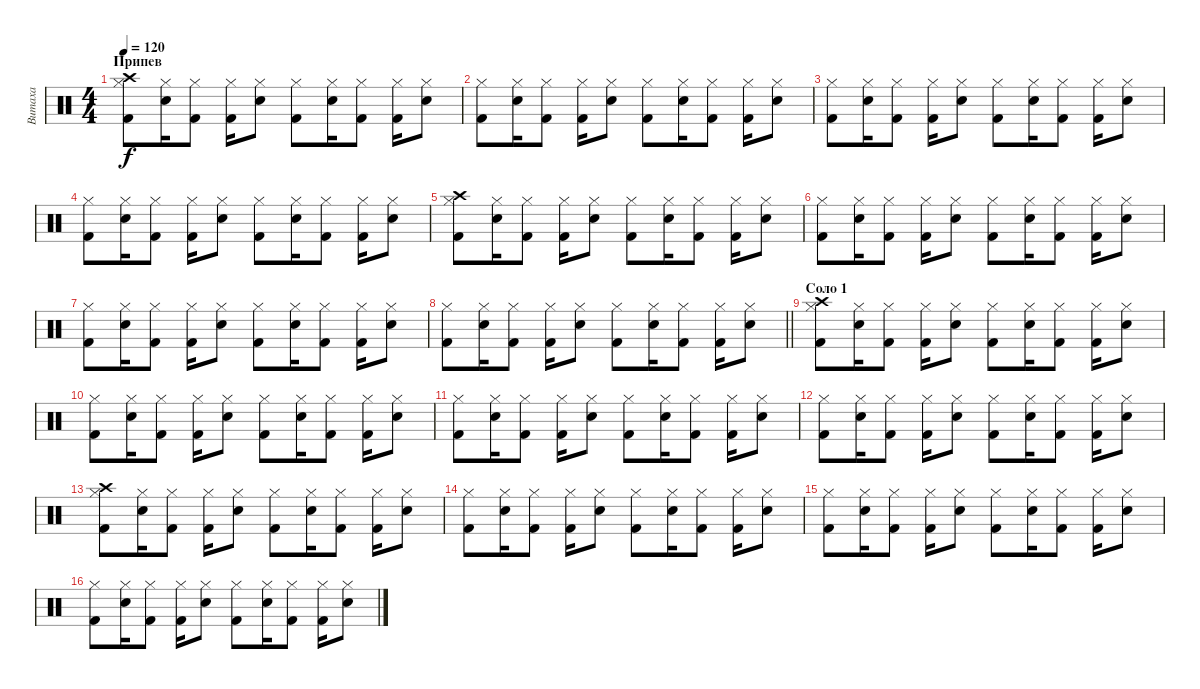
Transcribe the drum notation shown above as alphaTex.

\track ("Витаха" "Витаха") {instrument percussion}
\staff {score}
\articulation defaults
\ts (4 4)
\section ("" "Припев")
\tempo 120
\clef neutral
\ks c
("Kick (hit) 2" "Crash high (hit)" "Hi-Hat (closed)").8{dy f} ("Electric Snare (hit)" "Hi-Hat (closed)").16 ("Kick (hit) 2" "Hi-Hat (closed)").8 ("Kick (hit) 2" "Hi-Hat (closed)").16 ("Electric Snare (hit)" "Hi-Hat (closed)").8 ("Kick (hit) 2" "Hi-Hat (closed)").8 ("Electric Snare (hit)" "Hi-Hat (closed)").16 ("Kick (hit) 2" "Hi-Hat (closed)").8 ("Kick (hit) 2" "Hi-Hat (closed)").16 ("Electric Snare (hit)" "Hi-Hat (closed)").8 |
("Kick (hit) 2" "Hi-Hat (closed)").8 ("Electric Snare (hit)" "Hi-Hat (closed)").16 ("Kick (hit) 2" "Hi-Hat (closed)").8 ("Kick (hit) 2" "Hi-Hat (closed)").16 ("Electric Snare (hit)" "Hi-Hat (closed)").8 ("Kick (hit) 2" "Hi-Hat (closed)").8 ("Electric Snare (hit)" "Hi-Hat (closed)").16 ("Kick (hit) 2" "Hi-Hat (closed)").8 ("Kick (hit) 2" "Hi-Hat (closed)").16 ("Electric Snare (hit)" "Hi-Hat (closed)").8 |
("Kick (hit) 2" "Hi-Hat (closed)").8 ("Electric Snare (hit)" "Hi-Hat (closed)").16 ("Kick (hit) 2" "Hi-Hat (closed)").8 ("Kick (hit) 2" "Hi-Hat (closed)").16 ("Electric Snare (hit)" "Hi-Hat (closed)").8 ("Kick (hit) 2" "Hi-Hat (closed)").8 ("Electric Snare (hit)" "Hi-Hat (closed)").16 ("Kick (hit) 2" "Hi-Hat (closed)").8 ("Kick (hit) 2" "Hi-Hat (closed)").16 ("Electric Snare (hit)" "Hi-Hat (closed)").8 |
("Kick (hit) 2" "Hi-Hat (closed)").8 ("Electric Snare (hit)" "Hi-Hat (closed)").16 ("Kick (hit) 2" "Hi-Hat (closed)").8 ("Kick (hit) 2" "Hi-Hat (closed)").16 ("Electric Snare (hit)" "Hi-Hat (closed)").8 ("Kick (hit) 2" "Hi-Hat (closed)").8 ("Electric Snare (hit)" "Hi-Hat (closed)").16 ("Kick (hit) 2" "Hi-Hat (closed)").8 ("Kick (hit) 2" "Hi-Hat (closed)").16 ("Electric Snare (hit)" "Hi-Hat (closed)").8 |
("Kick (hit) 2" "Crash high (hit)" "Hi-Hat (closed)").8 ("Electric Snare (hit)" "Hi-Hat (closed)").16 ("Kick (hit) 2" "Hi-Hat (closed)").8 ("Kick (hit) 2" "Hi-Hat (closed)").16 ("Electric Snare (hit)" "Hi-Hat (closed)").8 ("Kick (hit) 2" "Hi-Hat (closed)").8 ("Electric Snare (hit)" "Hi-Hat (closed)").16 ("Kick (hit) 2" "Hi-Hat (closed)").8 ("Kick (hit) 2" "Hi-Hat (closed)").16 ("Electric Snare (hit)" "Hi-Hat (closed)").8 |
("Kick (hit) 2" "Hi-Hat (closed)").8 ("Electric Snare (hit)" "Hi-Hat (closed)").16 ("Kick (hit) 2" "Hi-Hat (closed)").8 ("Kick (hit) 2" "Hi-Hat (closed)").16 ("Electric Snare (hit)" "Hi-Hat (closed)").8 ("Kick (hit) 2" "Hi-Hat (closed)").8 ("Electric Snare (hit)" "Hi-Hat (closed)").16 ("Kick (hit) 2" "Hi-Hat (closed)").8 ("Kick (hit) 2" "Hi-Hat (closed)").16 ("Electric Snare (hit)" "Hi-Hat (closed)").8 |
("Kick (hit) 2" "Hi-Hat (closed)").8 ("Electric Snare (hit)" "Hi-Hat (closed)").16 ("Kick (hit) 2" "Hi-Hat (closed)").8 ("Kick (hit) 2" "Hi-Hat (closed)").16 ("Electric Snare (hit)" "Hi-Hat (closed)").8 ("Kick (hit) 2" "Hi-Hat (closed)").8 ("Electric Snare (hit)" "Hi-Hat (closed)").16 ("Kick (hit) 2" "Hi-Hat (closed)").8 ("Kick (hit) 2" "Hi-Hat (closed)").16 ("Electric Snare (hit)" "Hi-Hat (closed)").8 |
\barLineRight lightlight
("Kick (hit) 2" "Hi-Hat (closed)").8 ("Electric Snare (hit)" "Hi-Hat (closed)").16 ("Kick (hit) 2" "Hi-Hat (closed)").8 ("Kick (hit) 2" "Hi-Hat (closed)").16 ("Electric Snare (hit)" "Hi-Hat (closed)").8 ("Kick (hit) 2" "Hi-Hat (closed)").8 ("Electric Snare (hit)" "Hi-Hat (closed)").16 ("Kick (hit) 2" "Hi-Hat (closed)").8 ("Kick (hit) 2" "Hi-Hat (closed)").16 ("Electric Snare (hit)" "Hi-Hat (closed)").8 |
\section ("" "Соло 1")
("Kick (hit) 2" "Crash high (hit)" "Hi-Hat (closed)").8 ("Electric Snare (hit)" "Hi-Hat (closed)").16 ("Kick (hit) 2" "Hi-Hat (closed)").8 ("Kick (hit) 2" "Hi-Hat (closed)").16 ("Electric Snare (hit)" "Hi-Hat (closed)").8 ("Kick (hit) 2" "Hi-Hat (closed)").8 ("Electric Snare (hit)" "Hi-Hat (closed)").16 ("Kick (hit) 2" "Hi-Hat (closed)").8 ("Kick (hit) 2" "Hi-Hat (closed)").16 ("Electric Snare (hit)" "Hi-Hat (closed)").8 |
("Kick (hit) 2" "Hi-Hat (closed)").8 ("Electric Snare (hit)" "Hi-Hat (closed)").16 ("Kick (hit) 2" "Hi-Hat (closed)").8 ("Kick (hit) 2" "Hi-Hat (closed)").16 ("Electric Snare (hit)" "Hi-Hat (closed)").8 ("Kick (hit) 2" "Hi-Hat (closed)").8 ("Electric Snare (hit)" "Hi-Hat (closed)").16 ("Kick (hit) 2" "Hi-Hat (closed)").8 ("Kick (hit) 2" "Hi-Hat (closed)").16 ("Electric Snare (hit)" "Hi-Hat (closed)").8 |
("Kick (hit) 2" "Hi-Hat (closed)").8 ("Electric Snare (hit)" "Hi-Hat (closed)").16 ("Kick (hit) 2" "Hi-Hat (closed)").8 ("Kick (hit) 2" "Hi-Hat (closed)").16 ("Electric Snare (hit)" "Hi-Hat (closed)").8 ("Kick (hit) 2" "Hi-Hat (closed)").8 ("Electric Snare (hit)" "Hi-Hat (closed)").16 ("Kick (hit) 2" "Hi-Hat (closed)").8 ("Kick (hit) 2" "Hi-Hat (closed)").16 ("Electric Snare (hit)" "Hi-Hat (closed)").8 |
("Kick (hit) 2" "Hi-Hat (closed)").8 ("Electric Snare (hit)" "Hi-Hat (closed)").16 ("Kick (hit) 2" "Hi-Hat (closed)").8 ("Kick (hit) 2" "Hi-Hat (closed)").16 ("Electric Snare (hit)" "Hi-Hat (closed)").8 ("Kick (hit) 2" "Hi-Hat (closed)").8 ("Electric Snare (hit)" "Hi-Hat (closed)").16 ("Kick (hit) 2" "Hi-Hat (closed)").8 ("Kick (hit) 2" "Hi-Hat (closed)").16 ("Electric Snare (hit)" "Hi-Hat (closed)").8 |
("Kick (hit) 2" "Crash high (hit)" "Hi-Hat (closed)").8 ("Electric Snare (hit)" "Hi-Hat (closed)").16 ("Kick (hit) 2" "Hi-Hat (closed)").8 ("Kick (hit) 2" "Hi-Hat (closed)").16 ("Electric Snare (hit)" "Hi-Hat (closed)").8 ("Kick (hit) 2" "Hi-Hat (closed)").8 ("Electric Snare (hit)" "Hi-Hat (closed)").16 ("Kick (hit) 2" "Hi-Hat (closed)").8 ("Kick (hit) 2" "Hi-Hat (closed)").16 ("Electric Snare (hit)" "Hi-Hat (closed)").8 |
("Kick (hit) 2" "Hi-Hat (closed)").8 ("Electric Snare (hit)" "Hi-Hat (closed)").16 ("Kick (hit) 2" "Hi-Hat (closed)").8 ("Kick (hit) 2" "Hi-Hat (closed)").16 ("Electric Snare (hit)" "Hi-Hat (closed)").8 ("Kick (hit) 2" "Hi-Hat (closed)").8 ("Electric Snare (hit)" "Hi-Hat (closed)").16 ("Kick (hit) 2" "Hi-Hat (closed)").8 ("Kick (hit) 2" "Hi-Hat (closed)").16 ("Electric Snare (hit)" "Hi-Hat (closed)").8 |
("Kick (hit) 2" "Hi-Hat (closed)").8 ("Electric Snare (hit)" "Hi-Hat (closed)").16 ("Kick (hit) 2" "Hi-Hat (closed)").8 ("Kick (hit) 2" "Hi-Hat (closed)").16 ("Electric Snare (hit)" "Hi-Hat (closed)").8 ("Kick (hit) 2" "Hi-Hat (closed)").8 ("Electric Snare (hit)" "Hi-Hat (closed)").16 ("Kick (hit) 2" "Hi-Hat (closed)").8 ("Kick (hit) 2" "Hi-Hat (closed)").16 ("Electric Snare (hit)" "Hi-Hat (closed)").8 |
("Kick (hit) 2" "Hi-Hat (closed)").8 ("Electric Snare (hit)" "Hi-Hat (closed)").16 ("Kick (hit) 2" "Hi-Hat (closed)").8 ("Kick (hit) 2" "Hi-Hat (closed)").16 ("Electric Snare (hit)" "Hi-Hat (closed)").8 ("Kick (hit) 2" "Hi-Hat (closed)").8 ("Electric Snare (hit)" "Hi-Hat (closed)").16 ("Kick (hit) 2" "Hi-Hat (closed)").8 ("Kick (hit) 2" "Hi-Hat (closed)").16 ("Electric Snare (hit)" "Hi-Hat (closed)").8
